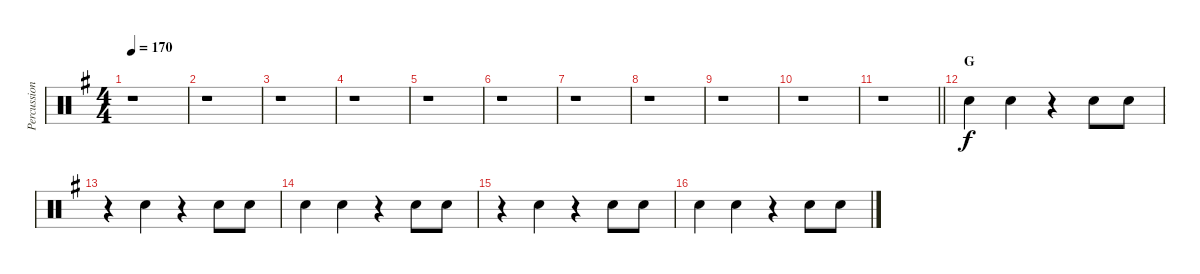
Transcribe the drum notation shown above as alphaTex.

\track ("Percussion" "Percussion") {instrument percussion}
\staff {score}
\articulation defaults
\ts (4 4)
\tempo 170
\clef neutral
\ks g
r.1{dy f} |
r.1 |
r.1 |
r.1 |
r.1 |
r.1 |
r.1 |
r.1 |
r.1 |
r.1 |
\barLineRight lightlight
r.1 |
\section ("" "G")
"Hand Clap (hit)".4 "Hand Clap (hit)".4 r.4 "Hand Clap (hit)".8 "Hand Clap (hit)".8 |
r.4 "Hand Clap (hit)".4 r.4 "Hand Clap (hit)".8 "Hand Clap (hit)".8 |
"Hand Clap (hit)".4 "Hand Clap (hit)".4 r.4 "Hand Clap (hit)".8 "Hand Clap (hit)".8 |
r.4 "Hand Clap (hit)".4 r.4 "Hand Clap (hit)".8 "Hand Clap (hit)".8 |
"Hand Clap (hit)".4 "Hand Clap (hit)".4 r.4 "Hand Clap (hit)".8 "Hand Clap (hit)".8
